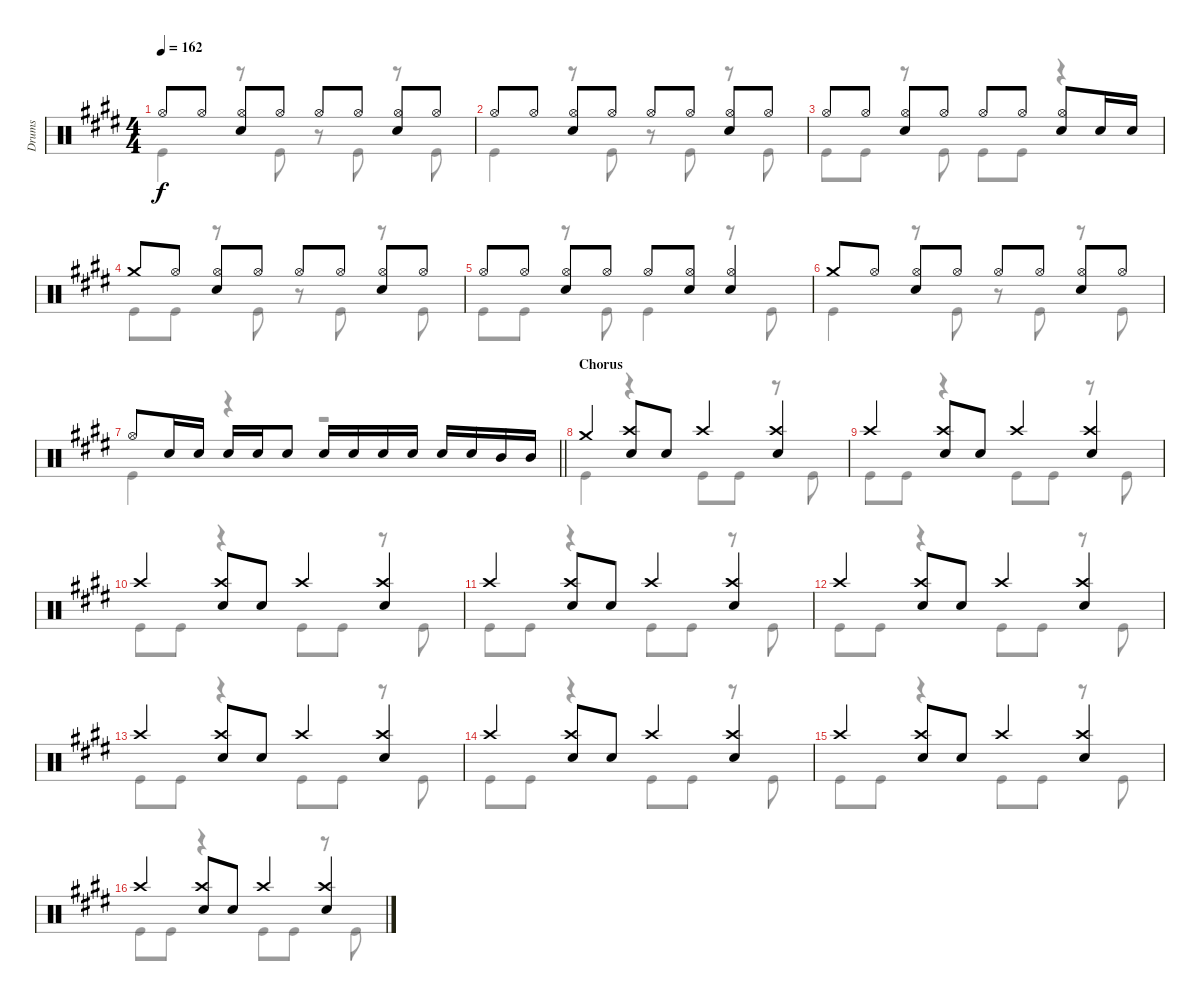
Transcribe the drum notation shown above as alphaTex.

\track ("Drums" "Drums") {instrument percussion}
\staff {score}
\articulation defaults
\voice
\ts (4 4)
\tempo 162
\clef neutral
\ks e "Hi-Hat (open)".8{dy f} "Hi-Hat (open)".8
("Hi-Hat (open)" "Electric Snare (hit)").8 "Hi-Hat (open)".8 "Hi-Hat (open)".8 "Hi-Hat (open)".8 ("Hi-Hat (open)" "Electric Snare (hit)").8 "Hi-Hat (open)".8 |
"Hi-Hat (open)".8 "Hi-Hat (open)".8 ("Hi-Hat (open)" "Electric Snare (hit)").8 "Hi-Hat (open)".8 "Hi-Hat (open)".8 "Hi-Hat (open)".8 ("Hi-Hat (open)" "Electric Snare (hit)").8 "Hi-Hat (open)".8 |
"Hi-Hat (open)".8 "Hi-Hat (open)".8 ("Hi-Hat (open)" "Electric Snare (hit)").8 "Hi-Hat (open)".8 "Hi-Hat (open)".8 "Hi-Hat (open)".8 ("Hi-Hat (open)" "Electric Snare (hit)").8 "Electric Snare (hit)".16 "Electric Snare (hit)".16 |
"Crash medium (hit)".8 "Hi-Hat (open)".8 ("Hi-Hat (open)" "Electric Snare (hit)").8 "Hi-Hat (open)".8 "Hi-Hat (open)".8 "Hi-Hat (open)".8 ("Hi-Hat (open)" "Electric Snare (hit)").8 "Hi-Hat (open)".8 |
"Hi-Hat (open)".8 "Hi-Hat (open)".8 ("Hi-Hat (open)" "Electric Snare (hit)").8 "Hi-Hat (open)".8 "Hi-Hat (open)".8 ("Hi-Hat (open)" "Electric Snare (hit)").8 ("Hi-Hat (open)" "Electric Snare (hit)").4 |
"Crash medium (hit)".8 "Hi-Hat (open)".8 ("Hi-Hat (open)" "Electric Snare (hit)").8 "Hi-Hat (open)".8 "Hi-Hat (open)".8 "Hi-Hat (open)".8 ("Hi-Hat (open)" "Electric Snare (hit)").8 "Hi-Hat (open)".8 |
\barLineRight lightlight "Hi-Hat (open)".8 "Electric Snare (hit)".16 "Electric Snare (hit)".16 "Electric Snare (hit)".16 "Electric Snare (hit)".16 "Electric Snare (hit)".8 "Electric Snare (hit)".16 "Electric Snare (hit)".16 "Electric Snare (hit)".16 "Electric Snare (hit)".16 "Electric Snare (hit)".16 "Electric Snare (hit)".16 "Mid Tom (hit)".16 "Mid Tom (hit)".16
|
\section ("" "Chorus")
"Crash medium (hit)".4 ("Crash high (hit)" "Electric Snare (hit)").8 "Electric Snare (hit)".8 "Crash high (hit)".4 ("Crash high (hit)" "Electric Snare (hit)").4 |
"Crash high (hit)".4 ("Crash high (hit)" "Electric Snare (hit)").8 "Electric Snare (hit)".8 "Crash high (hit)".4 ("Crash high (hit)" "Electric Snare (hit)").4 |
"Crash high (hit)".4 ("Crash high (hit)" "Electric Snare (hit)").8 "Electric Snare (hit)".8 "Crash high (hit)".4 ("Crash high (hit)" "Electric Snare (hit)").4 |
"Crash high (hit)".4 ("Crash high (hit)" "Electric Snare (hit)").8 "Electric Snare (hit)".8 "Crash high (hit)".4 ("Crash high (hit)" "Electric Snare (hit)").4 |
"Crash high (hit)".4 ("Crash high (hit)" "Electric Snare (hit)").8 "Electric Snare (hit)".8 "Crash high (hit)".4 ("Crash high (hit)" "Electric Snare (hit)").4 |
"Crash high (hit)".4 ("Crash high (hit)" "Electric Snare (hit)").8 "Electric Snare (hit)".8 "Crash high (hit)".4 ("Crash high (hit)" "Electric Snare (hit)").4 |
"Crash high (hit)".4 ("Crash high (hit)" "Electric Snare (hit)").8 "Electric Snare (hit)".8 "Crash high (hit)".4 ("Crash high (hit)" "Electric Snare (hit)").4 |
"Crash high (hit)".4 ("Crash high (hit)" "Electric Snare (hit)").8 "Electric Snare (hit)".8 "Crash high (hit)".4 ("Crash high (hit)" "Electric Snare (hit)").4 |
"Crash high (hit)".4 ("Crash high (hit)" "Electric Snare (hit)").8 "Electric Snare (hit)".8 "Crash high (hit)".4 ("Crash high (hit)" "Electric Snare (hit)").4
\voice
\clef neutral
\ottava regular
\simile none
\ks e "Kick (hit)".4{dy f}
r.8 "Kick (hit)".8 r.8 "Kick (hit)".8 r.8 "Kick (hit)".8 |
"Kick (hit)".4 r.8 "Kick (hit)".8 r.8 "Kick (hit)".8 r.8 "Kick (hit)".8 |
"Kick (hit)".8 "Kick (hit)".8 r.8 "Kick (hit)".8 "Kick (hit)".8 "Kick (hit)".8 r.4 |
"Kick (hit)".8 "Kick (hit)".8 r.8 "Kick (hit)".8 r.8 "Kick (hit)".8 r.8 "Kick (hit)".8 |
"Kick (hit)".8 "Kick (hit)".8 r.8 "Kick (hit)".8 "Kick (hit)".4 r.8 "Kick (hit)".8 |
"Kick (hit)".4 r.8 "Kick (hit)".8 r.8 "Kick (hit)".8 r.8 "Kick (hit)".8 |
\barLineRight lightlight "Kick (hit)".4
r.4 r.2 |
"Kick (hit)".4 r.4 "Kick (hit)".8 "Kick (hit)".8 r.8 "Kick (hit)".8 |
"Kick (hit)".8 "Kick (hit)".8 r.4 "Kick (hit)".8 "Kick (hit)".8 r.8 "Kick (hit)".8 |
"Kick (hit)".8 "Kick (hit)".8 r.4 "Kick (hit)".8 "Kick (hit)".8 r.8 "Kick (hit)".8 |
"Kick (hit)".8 "Kick (hit)".8 r.4 "Kick (hit)".8 "Kick (hit)".8 r.8 "Kick (hit)".8 |
"Kick (hit)".8 "Kick (hit)".8 r.4 "Kick (hit)".8 "Kick (hit)".8 r.8 "Kick (hit)".8 |
"Kick (hit)".8 "Kick (hit)".8 r.4 "Kick (hit)".8 "Kick (hit)".8 r.8 "Kick (hit)".8 |
"Kick (hit)".8 "Kick (hit)".8 r.4 "Kick (hit)".8 "Kick (hit)".8 r.8 "Kick (hit)".8 |
"Kick (hit)".8 "Kick (hit)".8 r.4 "Kick (hit)".8 "Kick (hit)".8 r.8 "Kick (hit)".8 |
"Kick (hit)".8 "Kick (hit)".8 r.4 "Kick (hit)".8 "Kick (hit)".8 r.8 "Kick (hit)".8
